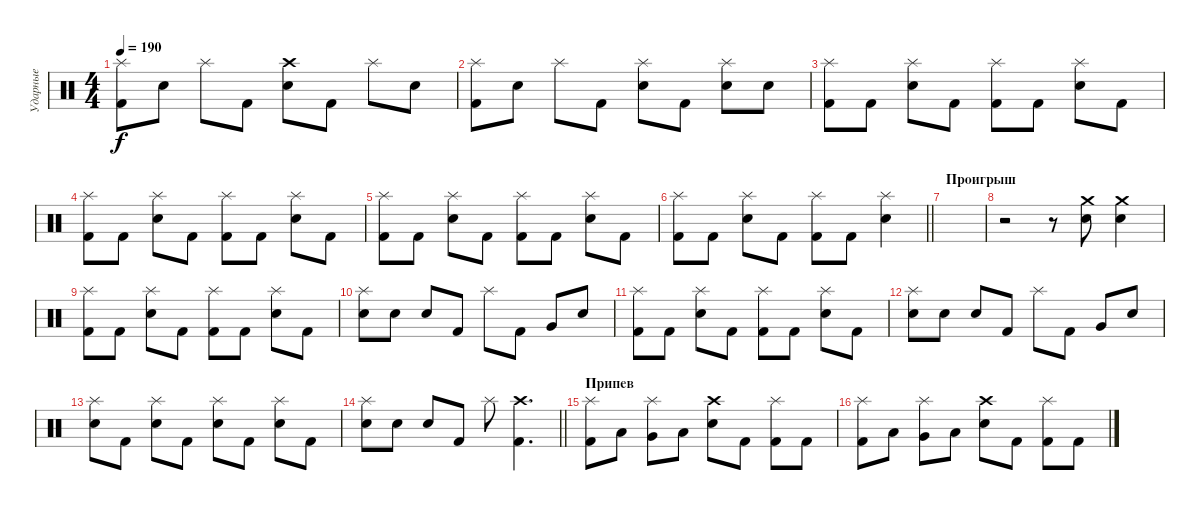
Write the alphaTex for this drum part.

\track ("Ударные" "Ударные") {instrument percussion}
\staff {score}
\articulation defaults
\ts (4 4)
\tempo 190
\clef neutral
\ks c
("Splash (hit)" "Kick (hit) 2").8{dy f} "Electric Snare (hit)".8 "Splash (hit)".8 "Kick (hit) 2".8 ("Crash high (hit)" "Electric Snare (hit)").8 "Kick (hit) 2".8 "Splash (hit)".8 "Electric Snare (hit)".8 |
("Splash (hit)" "Kick (hit) 2").8 "Electric Snare (hit)".8 "Splash (hit)".8 "Kick (hit) 2".8 ("Splash (hit)" "Electric Snare (hit)").8 "Kick (hit) 2".8 ("Splash (hit)" "Electric Snare (hit)").8 "Electric Snare (hit)".8 |
("Splash (hit)" "Kick (hit) 2").8 "Kick (hit) 2".8 ("Splash (hit)" "Electric Snare (hit)").8 "Kick (hit) 2".8 ("Splash (hit)" "Kick (hit) 2").8 "Kick (hit) 2".8 ("Splash (hit)" "Electric Snare (hit)").8 "Kick (hit) 2".8 |
("Splash (hit)" "Kick (hit) 2").8 "Kick (hit) 2".8 ("Splash (hit)" "Electric Snare (hit)").8 "Kick (hit) 2".8 ("Splash (hit)" "Kick (hit) 2").8 "Kick (hit) 2".8 ("Splash (hit)" "Electric Snare (hit)").8 "Kick (hit) 2".8 |
("Splash (hit)" "Kick (hit) 2").8 "Kick (hit) 2".8 ("Splash (hit)" "Electric Snare (hit)").8 "Kick (hit) 2".8 ("Splash (hit)" "Kick (hit) 2").8 "Kick (hit) 2".8 ("Splash (hit)" "Electric Snare (hit)").8 "Kick (hit) 2".8 |
\barLineRight lightlight
("Splash (hit)" "Kick (hit) 2").8 "Kick (hit) 2".8 ("Splash (hit)" "Electric Snare (hit)").8 "Kick (hit) 2".8 ("Splash (hit)" "Kick (hit) 2").8 "Kick (hit) 2".8 ("Splash (hit)" "Electric Snare (hit)").4 |
\section ("" "Проигрыш")
|
r.2 r.8 ("Crash medium (hit)" "Electric Snare (hit)").8 ("Crash medium (hit)" "Electric Snare (hit)").4 |
("Splash (hit)" "Kick (hit) 2").8 "Kick (hit) 2".8 ("Splash (hit)" "Electric Snare (hit)").8 "Kick (hit) 2".8 ("Splash (hit)" "Kick (hit) 2").8 "Kick (hit) 2".8 ("Splash (hit)" "Electric Snare (hit)").8 "Kick (hit) 2".8 |
("Splash (hit)" "Electric Snare (hit)").8 "Electric Snare (hit)".8 "Electric Snare (hit)".8 "Kick (hit) 2".8 "Splash (hit)".8 "Kick (hit) 2".8 "Very Low Tom (hit)".8 "Electric Snare (hit)".8 |
("Splash (hit)" "Kick (hit) 2").8 "Kick (hit) 2".8 ("Splash (hit)" "Electric Snare (hit)").8 "Kick (hit) 2".8 ("Splash (hit)" "Kick (hit) 2").8 "Kick (hit) 2".8 ("Splash (hit)" "Electric Snare (hit)").8 "Kick (hit) 2".8 |
("Splash (hit)" "Electric Snare (hit)").8 "Electric Snare (hit)".8 "Electric Snare (hit)".8 "Kick (hit) 2".8 "Splash (hit)".8 "Kick (hit) 2".8 "Very Low Tom (hit)".8 "Electric Snare (hit)".8 |
("Splash (hit)" "Electric Snare (hit)").8 "Kick (hit) 2".8 ("Splash (hit)" "Electric Snare (hit)").8 "Kick (hit) 2".8 ("Splash (hit)" "Electric Snare (hit)").8 "Kick (hit) 2".8 ("Splash (hit)" "Electric Snare (hit)").8 "Kick (hit) 2".8 |
\barLineRight lightlight
("Splash (hit)" "Electric Snare (hit)").8 "Electric Snare (hit)".8 "Electric Snare (hit)".8 "Kick (hit) 2".8 "Splash (hit)".8 ("Crash high (hit)" "Kick (hit) 2").4{d} |
\section ("" "Припев")
("Splash (hit)" "Kick (hit) 2").8 "Low Tom (hit)".8 ("Splash (hit)" "Very Low Tom (hit)").8 "Low Floor Tom (hit)".8 ("Crash high (hit)" "Electric Snare (hit)").8 "Kick (hit) 2".8 ("Splash (hit)" "Kick (hit) 2").8 "Kick (hit) 2".8 |
("Splash (hit)" "Kick (hit) 2").8 "Low Tom (hit)".8 ("Splash (hit)" "Very Low Tom (hit)").8 "Low Floor Tom (hit)".8 ("Crash high (hit)" "Electric Snare (hit)").8 "Kick (hit) 2".8 ("Splash (hit)" "Kick (hit) 2").8 "Kick (hit) 2".8
